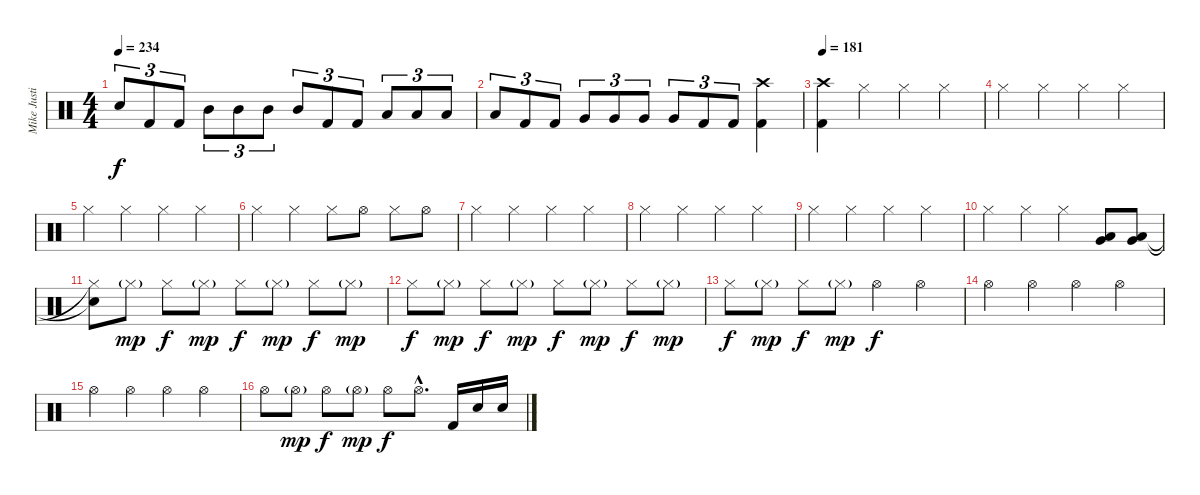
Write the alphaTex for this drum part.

\track ("Mike Justian (Drums)" "Mike Justi") {instrument percussion}
\staff {score}
\articulation defaults
\ts (4 4)
\tempo 234
\clef neutral
\ks c "Snare (hit) 2".8{tu (3 2) dy f} "Kick (hit) 2".8{tu (3 2)} "Kick (hit) 2".8{tu (3 2)} "Mid Tom (hit)".8{tu (3 2)} "Mid Tom (hit)".8{tu (3 2)} "Mid Tom (hit)".8{tu (3 2)} "Mid Tom (hit)".8{tu (3 2)} "Kick (hit) 2".8{tu (3 2)} "Kick (hit) 2".8{tu (3 2)} "Low Tom (hit)".8{tu (3 2)} "Low Tom (hit)".8{tu (3 2)} "Low Tom (hit)".8{tu (3 2)}
|
"Low Tom (hit)".8{tu (3 2)} "Kick (hit) 2".8{tu (3 2)} "Kick (hit) 2".8{tu (3 2)} "Very Low Tom (hit)".8{tu (3 2)} "Very Low Tom (hit)".8{tu (3 2)} "Very Low Tom (hit)".8{tu (3 2)} "Very Low Tom (hit)".8{tu (3 2)} "Kick (hit) 2".8{tu (3 2)} "Kick (hit) 2".8{tu (3 2)} ("Crash high (hit)" "Kick (hit) 2").4 |
\tempo 181
("Crash high (hit)" "Kick (hit) 2").4 "Hi-Hat (closed)".4 "Hi-Hat (closed)".4 "Hi-Hat (closed)".4 |
"Hi-Hat (closed)".4 "Hi-Hat (closed)".4 "Hi-Hat (closed)".4 "Hi-Hat (closed)".4 |
"Hi-Hat (closed)".4 "Hi-Hat (closed)".4 "Hi-Hat (closed)".4 "Hi-Hat (closed)".4 |
"Hi-Hat (closed)".4 "Hi-Hat (closed)".4 "Hi-Hat (closed)".8 "Hi-Hat (open)".8 "Hi-Hat (closed)".8 "Hi-Hat (open)".8 |
"Hi-Hat (closed)".4 "Hi-Hat (closed)".4 "Hi-Hat (closed)".4 "Hi-Hat (closed)".4 |
"Hi-Hat (closed)".4 "Hi-Hat (closed)".4 "Hi-Hat (closed)".4 "Hi-Hat (closed)".4 |
"Hi-Hat (closed)".4 "Hi-Hat (closed)".4 "Hi-Hat (closed)".4 "Hi-Hat (closed)".4 |
"Hi-Hat (closed)".4 "Hi-Hat (closed)".4 "Hi-Hat (closed)".4 ("Very Low Tom (hit)" "Low Floor Tom (hit)").8 ("Very Low Tom (hit)" "Low Floor Tom (hit)").8 |
("Hi-Hat (closed)"{t} "Snare (hit)"{t}).8 "Hi-Hat (closed)"{g}.8{dy mp} "Hi-Hat (closed)".8{dy f} "Hi-Hat (closed)"{g}.8{dy mp} "Hi-Hat (closed)".8{dy f} "Hi-Hat (closed)"{g}.8{dy mp} "Hi-Hat (closed)".8{dy f} "Hi-Hat (closed)"{g}.8{dy mp} |
"Hi-Hat (closed)".8{dy f} "Hi-Hat (closed)"{g}.8{dy mp} "Hi-Hat (closed)".8{dy f} "Hi-Hat (closed)"{g}.8{dy mp} "Hi-Hat (closed)".8{dy f} "Hi-Hat (closed)"{g}.8{dy mp} "Hi-Hat (closed)".8{dy f} "Hi-Hat (closed)"{g}.8{dy mp} |
"Hi-Hat (closed)".8{dy f} "Hi-Hat (closed)"{g}.8{dy mp} "Hi-Hat (closed)".8{dy f} "Hi-Hat (closed)"{g}.8{dy mp} "Hi-Hat (open)".4{dy f} "Hi-Hat (open)".4 |
"Hi-Hat (open)".4 "Hi-Hat (open)".4 "Hi-Hat (open)".4 "Hi-Hat (open)".4 |
"Hi-Hat (open)".4 "Hi-Hat (open)".4 "Hi-Hat (open)".4 "Hi-Hat (open)".4 |
"Hi-Hat (open)".8 "Hi-Hat (open)"{g}.8{dy mp} "Hi-Hat (open)".8{dy f} "Hi-Hat (open)"{g}.8{dy mp} "Hi-Hat (open)".8{dy f} "Hi-Hat (open)"{hac}.8{d} "Kick (hit) 2".16 "Snare (hit) 2".16 "Snare (hit) 2".16
